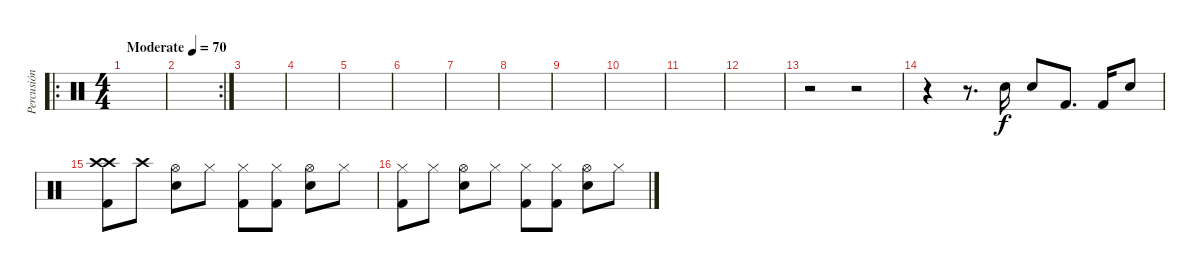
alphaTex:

\track ("Percusión" "Percusión") {instrument percussion}
\staff {score}
\articulation defaults
\ro
\ts (4 4)
\tempo (70 "Moderate")
\clef neutral
\ks c
|
\rc 2
|
|
|
|
|
|
|
|
|
|
|
r.2 r.2 |
r.4 r.8{d} "Snare (hit) 2".16 "Snare (hit) 2".8 "Kick (hit) 2".8{d} "Kick (hit) 2".16 "Snare (hit) 2".8 |
("Crash high (hit)" "Crash high (hit)" "Kick (hit) 2").8 "Crash high (hit)".8 ("Hi-Hat (open)" "Snare (hit) 2").8 "Hi-Hat (closed)".8 ("Hi-Hat (closed)" "Kick (hit) 2").8 ("Hi-Hat (closed)" "Kick (hit) 2").8 ("Hi-Hat (open)" "Snare (hit) 2").8 "Hi-Hat (closed)".8 |
("Hi-Hat (closed)" "Kick (hit) 2").8 "Hi-Hat (closed)".8 ("Hi-Hat (open)" "Snare (hit) 2").8 "Hi-Hat (closed)".8 ("Hi-Hat (closed)" "Kick (hit) 2").8 ("Hi-Hat (closed)" "Kick (hit) 2").8 ("Hi-Hat (open)" "Snare (hit) 2").8 "Hi-Hat (closed)".8
